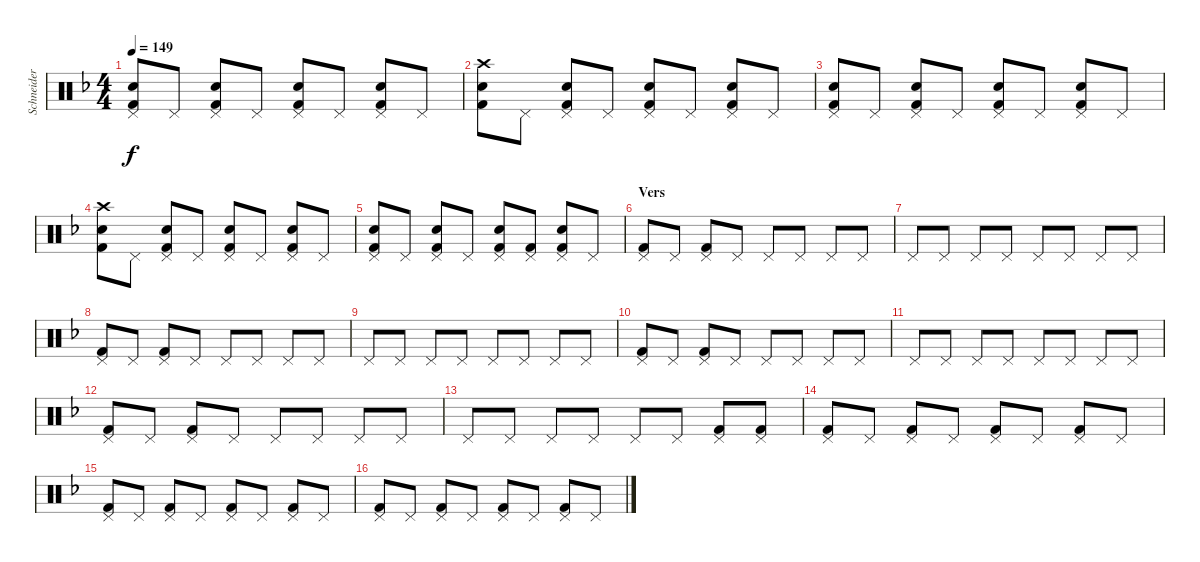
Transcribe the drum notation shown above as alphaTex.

\track ("Schneider" "Schneider") {instrument percussion}
\staff {score}
\articulation defaults
\ts (4 4)
\tempo 149
\clef neutral
\ks dminor
("Pedal Hi-Hat (hit)" "Snare (hit) 2" "Kick (hit) 2").8{dy f} "Pedal Hi-Hat (hit)".8 ("Pedal Hi-Hat (hit)" "Snare (hit) 2" "Kick (hit) 2").8 "Pedal Hi-Hat (hit)".8 ("Pedal Hi-Hat (hit)" "Snare (hit) 2" "Kick (hit) 2").8 "Pedal Hi-Hat (hit)".8 ("Pedal Hi-Hat (hit)" "Snare (hit) 2" "Kick (hit) 2").8 "Pedal Hi-Hat (hit)".8 |
("Crash high (hit)" "Snare (hit) 2" "Kick (hit) 2").8 "Pedal Hi-Hat (hit)".8 ("Pedal Hi-Hat (hit)" "Snare (hit) 2" "Kick (hit) 2").8 "Pedal Hi-Hat (hit)".8 ("Pedal Hi-Hat (hit)" "Snare (hit) 2" "Kick (hit) 2").8 "Pedal Hi-Hat (hit)".8 ("Pedal Hi-Hat (hit)" "Snare (hit) 2" "Kick (hit) 2").8 "Pedal Hi-Hat (hit)".8 |
("Pedal Hi-Hat (hit)" "Snare (hit) 2" "Kick (hit) 2").8 "Pedal Hi-Hat (hit)".8 ("Pedal Hi-Hat (hit)" "Snare (hit) 2" "Kick (hit) 2").8 "Pedal Hi-Hat (hit)".8 ("Pedal Hi-Hat (hit)" "Snare (hit) 2" "Kick (hit) 2").8 "Pedal Hi-Hat (hit)".8 ("Pedal Hi-Hat (hit)" "Snare (hit) 2" "Kick (hit) 2").8 "Pedal Hi-Hat (hit)".8 |
("Crash high (hit)" "Snare (hit) 2" "Kick (hit) 2").8 "Pedal Hi-Hat (hit)".8 ("Pedal Hi-Hat (hit)" "Snare (hit) 2" "Kick (hit) 2").8 "Pedal Hi-Hat (hit)".8 ("Pedal Hi-Hat (hit)" "Snare (hit) 2" "Kick (hit) 2").8 "Pedal Hi-Hat (hit)".8 ("Pedal Hi-Hat (hit)" "Snare (hit) 2" "Kick (hit) 2").8 "Pedal Hi-Hat (hit)".8 |
("Pedal Hi-Hat (hit)" "Snare (hit) 2" "Kick (hit) 2").8 "Pedal Hi-Hat (hit)".8 ("Pedal Hi-Hat (hit)" "Snare (hit) 2" "Kick (hit) 2").8 "Pedal Hi-Hat (hit)".8 ("Pedal Hi-Hat (hit)" "Snare (hit) 2" "Kick (hit) 2").8 ("Pedal Hi-Hat (hit)" "Kick (hit) 2").8 ("Pedal Hi-Hat (hit)" "Snare (hit) 2" "Kick (hit) 2").8 "Pedal Hi-Hat (hit)".8 |
\section ("" "Vers")
("Pedal Hi-Hat (hit)" "Kick (hit) 2").8 "Pedal Hi-Hat (hit)".8 ("Pedal Hi-Hat (hit)" "Kick (hit) 2").8 "Pedal Hi-Hat (hit)".8 "Pedal Hi-Hat (hit)".8 "Pedal Hi-Hat (hit)".8 "Pedal Hi-Hat (hit)".8 "Pedal Hi-Hat (hit)".8 |
"Pedal Hi-Hat (hit)".8 "Pedal Hi-Hat (hit)".8 "Pedal Hi-Hat (hit)".8 "Pedal Hi-Hat (hit)".8 "Pedal Hi-Hat (hit)".8 "Pedal Hi-Hat (hit)".8 "Pedal Hi-Hat (hit)".8 "Pedal Hi-Hat (hit)".8 |
("Pedal Hi-Hat (hit)" "Kick (hit) 2").8 "Pedal Hi-Hat (hit)".8 ("Pedal Hi-Hat (hit)" "Kick (hit) 2").8 "Pedal Hi-Hat (hit)".8 "Pedal Hi-Hat (hit)".8 "Pedal Hi-Hat (hit)".8 "Pedal Hi-Hat (hit)".8 "Pedal Hi-Hat (hit)".8 |
"Pedal Hi-Hat (hit)".8 "Pedal Hi-Hat (hit)".8 "Pedal Hi-Hat (hit)".8 "Pedal Hi-Hat (hit)".8 "Pedal Hi-Hat (hit)".8 "Pedal Hi-Hat (hit)".8 "Pedal Hi-Hat (hit)".8 "Pedal Hi-Hat (hit)".8 |
("Pedal Hi-Hat (hit)" "Kick (hit) 2").8 "Pedal Hi-Hat (hit)".8 ("Pedal Hi-Hat (hit)" "Kick (hit) 2").8 "Pedal Hi-Hat (hit)".8 "Pedal Hi-Hat (hit)".8 "Pedal Hi-Hat (hit)".8 "Pedal Hi-Hat (hit)".8 "Pedal Hi-Hat (hit)".8 |
"Pedal Hi-Hat (hit)".8 "Pedal Hi-Hat (hit)".8 "Pedal Hi-Hat (hit)".8 "Pedal Hi-Hat (hit)".8 "Pedal Hi-Hat (hit)".8 "Pedal Hi-Hat (hit)".8 "Pedal Hi-Hat (hit)".8 "Pedal Hi-Hat (hit)".8 |
("Pedal Hi-Hat (hit)" "Kick (hit) 2").8 "Pedal Hi-Hat (hit)".8 ("Pedal Hi-Hat (hit)" "Kick (hit) 2").8 "Pedal Hi-Hat (hit)".8 "Pedal Hi-Hat (hit)".8 "Pedal Hi-Hat (hit)".8 "Pedal Hi-Hat (hit)".8 "Pedal Hi-Hat (hit)".8 |
"Pedal Hi-Hat (hit)".8 "Pedal Hi-Hat (hit)".8 "Pedal Hi-Hat (hit)".8 "Pedal Hi-Hat (hit)".8 "Pedal Hi-Hat (hit)".8 "Pedal Hi-Hat (hit)".8 ("Pedal Hi-Hat (hit)" "Kick (hit) 2").8 ("Pedal Hi-Hat (hit)" "Kick (hit) 2").8 |
("Pedal Hi-Hat (hit)" "Kick (hit) 2").8 "Pedal Hi-Hat (hit)".8 ("Pedal Hi-Hat (hit)" "Kick (hit) 2").8 "Pedal Hi-Hat (hit)".8 ("Pedal Hi-Hat (hit)" "Kick (hit) 2").8 "Pedal Hi-Hat (hit)".8 ("Pedal Hi-Hat (hit)" "Kick (hit) 2").8 "Pedal Hi-Hat (hit)".8 |
("Pedal Hi-Hat (hit)" "Kick (hit) 2").8 "Pedal Hi-Hat (hit)".8 ("Pedal Hi-Hat (hit)" "Kick (hit) 2").8 "Pedal Hi-Hat (hit)".8 ("Pedal Hi-Hat (hit)" "Kick (hit) 2").8 "Pedal Hi-Hat (hit)".8 ("Pedal Hi-Hat (hit)" "Kick (hit) 2").8 "Pedal Hi-Hat (hit)".8 |
("Pedal Hi-Hat (hit)" "Kick (hit) 2").8 "Pedal Hi-Hat (hit)".8 ("Pedal Hi-Hat (hit)" "Kick (hit) 2").8 "Pedal Hi-Hat (hit)".8 ("Pedal Hi-Hat (hit)" "Kick (hit) 2").8 "Pedal Hi-Hat (hit)".8 ("Pedal Hi-Hat (hit)" "Kick (hit) 2").8 "Pedal Hi-Hat (hit)".8
